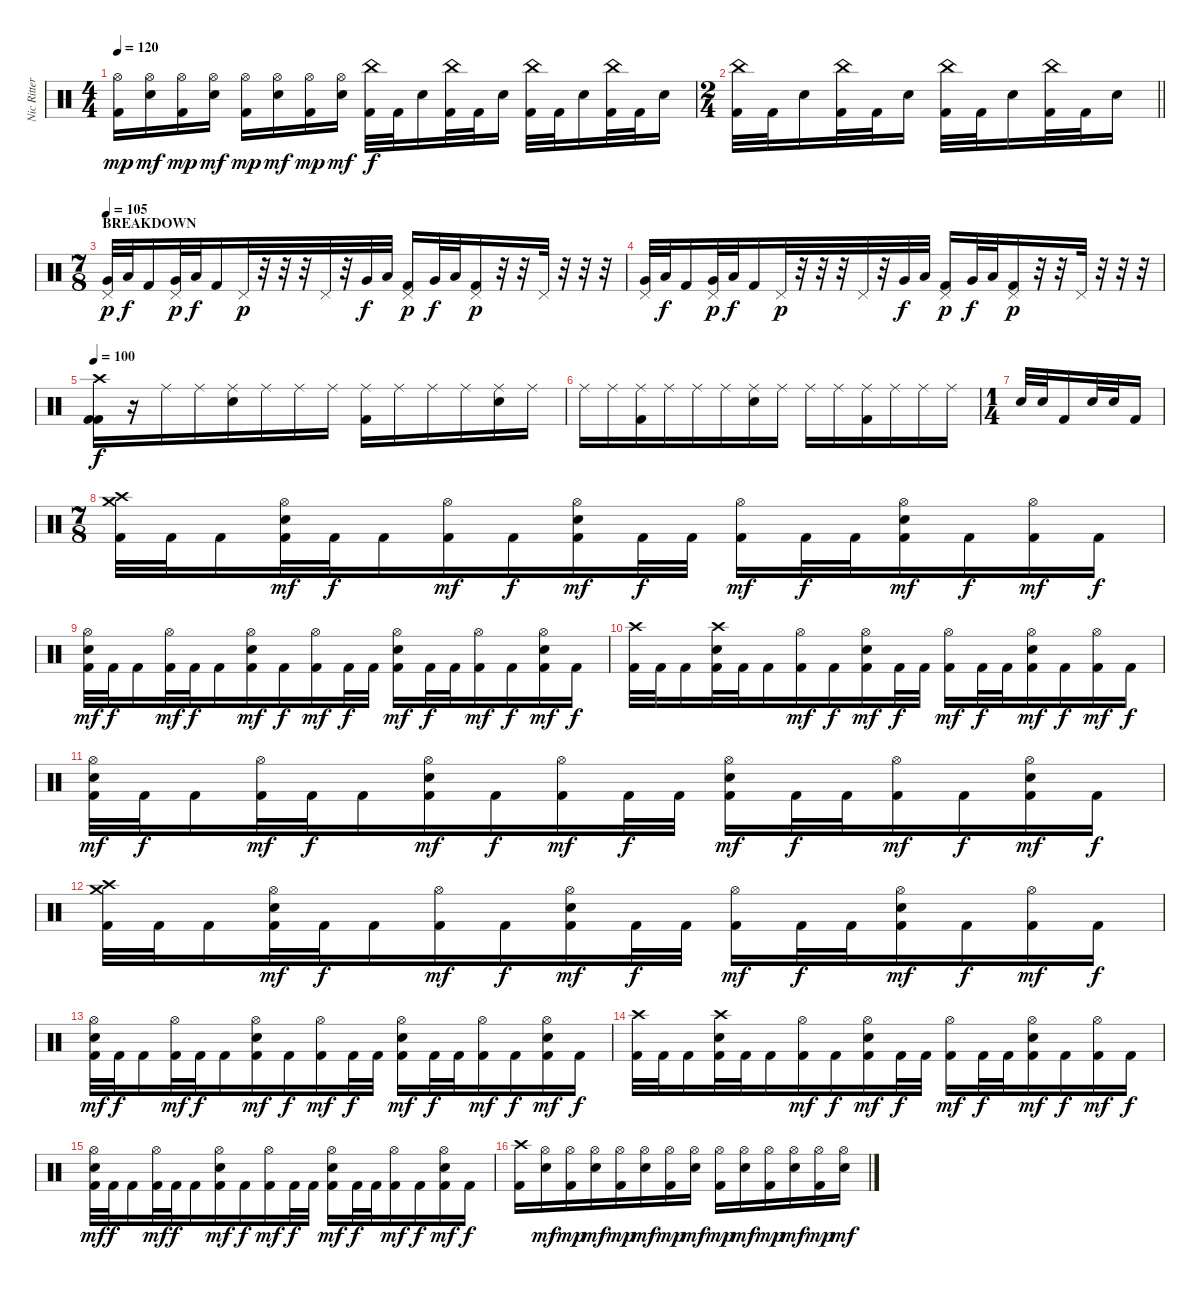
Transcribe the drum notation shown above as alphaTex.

\track ("Nic Ritter" "Nic Ritter") {instrument percussion}
\staff {score}
\articulation defaults
\ts (4 4)
\tempo 120
\clef neutral
\ks c
("Hi-Hat (open)" "Kick (hit) 2").16{dy mp} ("Hi-Hat (open)" "Electric Snare (hit)").16{dy mf} ("Hi-Hat (open)" "Kick (hit) 2").16{dy mp} ("Hi-Hat (open)" "Electric Snare (hit)").16{dy mf} ("Hi-Hat (open)" "Kick (hit) 2").16{dy mp} ("Hi-Hat (open)" "Electric Snare (hit)").16{dy mf} ("Hi-Hat (open)" "Kick (hit) 2").16{dy mp} ("Hi-Hat (open)" "Electric Snare (hit)").16{dy mf} ("China (hit)" "Kick (hit) 2").32{dy f} "Kick (hit) 2".32 "Electric Snare (hit)".16 ("China (hit)" "Kick (hit) 2").32 "Kick (hit) 2".32 "Electric Snare (hit)".16 ("China (hit)" "Kick (hit) 2").32 "Kick (hit) 2".32 "Electric Snare (hit)".16 ("China (hit)" "Kick (hit) 2").32 "Kick (hit) 2".32 "Electric Snare (hit)".16 |
\ts (2 4)
\barLineRight lightlight
("China (hit)" "Kick (hit) 2").32 "Kick (hit) 2".32 "Electric Snare (hit)".16 ("China (hit)" "Kick (hit) 2").32 "Kick (hit) 2".32 "Electric Snare (hit)".16 ("China (hit)" "Kick (hit) 2").32 "Kick (hit) 2".32 "Electric Snare (hit)".16 ("China (hit)" "Kick (hit) 2").32 "Kick (hit) 2".32 "Electric Snare (hit)".16 |
\ts (7 8)
\section ("" "BREAKDOWN")
\tempo 105
("Pedal Hi-Hat (hit)" "Very Low Tom (hit)").32{dy p} "Low Tom (hit)".32{dy f} "Kick (hit) 2".16 ("Pedal Hi-Hat (hit)" "Very Low Tom (hit)").32{dy p} "Low Tom (hit)".32{dy f} "Kick (hit) 2".16 "Pedal Hi-Hat (hit)".32{dy p} r.32 r.32 r.32 "Pedal Hi-Hat (hit)".32 r.32 "Very Low Tom (hit)".32{dy f} "Low Tom (hit)".32 ("Pedal Hi-Hat (hit)" "Kick (hit) 2").16{dy p} "Very Low Tom (hit)".32{dy f} "Low Tom (hit)".32 ("Pedal Hi-Hat (hit)" "Kick (hit) 2").16{dy p} r.32 r.32 "Pedal Hi-Hat (hit)".32 r.32 r.32 r.32 |
("Pedal Hi-Hat (hit)" "Very Low Tom (hit)").32 "Low Tom (hit)".32{dy f} "Kick (hit) 2".16 ("Pedal Hi-Hat (hit)" "Very Low Tom (hit)").32{dy p} "Low Tom (hit)".32{dy f} "Kick (hit) 2".16 "Pedal Hi-Hat (hit)".32{dy p} r.32 r.32 r.32 "Pedal Hi-Hat (hit)".32 r.32 "Very Low Tom (hit)".32{dy f} "Low Tom (hit)".32 ("Pedal Hi-Hat (hit)" "Kick (hit) 2").16{dy p} "Very Low Tom (hit)".32{dy f} "Low Tom (hit)".32 ("Pedal Hi-Hat (hit)" "Kick (hit) 2").16{dy p} r.32 r.32 "Pedal Hi-Hat (hit)".32 r.32 r.32 r.32 |
\tempo 100
("Crash high (hit)" "Kick (hit) 2" "Kick (hit) 2").16{dy f} r.16 "Ride (middle)".16 "Ride (middle)".16 ("Ride (middle)" "Electric Snare (hit)").16 "Ride (middle)".16 "Ride (middle)".16 "Ride (middle)".16 ("Ride (middle)" "Kick (hit) 2").16 "Ride (middle)".16 "Ride (middle)".16 "Ride (middle)".16 ("Ride (middle)" "Electric Snare (hit)").16 "Ride (middle)".16 |
"Ride (middle)".16 "Ride (middle)".16 ("Ride (middle)" "Kick (hit) 2").16 "Ride (middle)".16 "Ride (middle)".16 "Ride (middle)".16 ("Ride (middle)" "Electric Snare (hit)").16 "Ride (middle)".16 "Ride (middle)".16 "Ride (middle)".16 ("Ride (middle)" "Kick (hit) 2").16 "Ride (middle)".16 "Ride (middle)".16 "Ride (middle)".16 |
\ts (1 4)
"Electric Snare (hit)".32 "Electric Snare (hit)".32 "Kick (hit) 2".16 "Electric Snare (hit)".32 "Electric Snare (hit)".32 "Kick (hit) 2".16 |
\ts (7 8)
("Crash medium (hit)" "Crash high (hit)" "Kick (hit) 2").32 "Kick (hit) 2".32 "Kick (hit) 2".16 ("Hi-Hat (open)" "Electric Snare (hit)" "Kick (hit) 2").32{dy mf} "Kick (hit) 2".32{dy f} "Kick (hit) 2".16 ("Hi-Hat (open)" "Kick (hit) 2").16{dy mf} "Kick (hit) 2".16{dy f} ("Hi-Hat (open)" "Electric Snare (hit)" "Kick (hit) 2").16{dy mf} "Kick (hit) 2".32{dy f} "Kick (hit) 2".32 ("Hi-Hat (open)" "Kick (hit) 2").16{dy mf} "Kick (hit) 2".32{dy f} "Kick (hit) 2".32 ("Hi-Hat (open)" "Electric Snare (hit)" "Kick (hit) 2").16{dy mf} "Kick (hit) 2".16{dy f} ("Hi-Hat (open)" "Kick (hit) 2").16{dy mf} "Kick (hit) 2".16{dy f} |
("Hi-Hat (open)" "Electric Snare (hit)" "Kick (hit) 2").32{dy mf} "Kick (hit) 2".32{dy f} "Kick (hit) 2".16 ("Hi-Hat (open)" "Kick (hit) 2").32{dy mf} "Kick (hit) 2".32{dy f} "Kick (hit) 2".16 ("Hi-Hat (open)" "Electric Snare (hit)" "Kick (hit) 2").16{dy mf} "Kick (hit) 2".16{dy f} ("Hi-Hat (open)" "Kick (hit) 2").16{dy mf} "Kick (hit) 2".32{dy f} "Kick (hit) 2".32 ("Hi-Hat (open)" "Electric Snare (hit)" "Kick (hit) 2").16{dy mf} "Kick (hit) 2".32{dy f} "Kick (hit) 2".32 ("Hi-Hat (open)" "Kick (hit) 2").16{dy mf} "Kick (hit) 2".16{dy f} ("Hi-Hat (open)" "Electric Snare (hit)" "Kick (hit) 2").16{dy mf} "Kick (hit) 2".16{dy f} |
("Crash high (hit)" "Kick (hit) 2").32 "Kick (hit) 2".32 "Kick (hit) 2".16 ("Crash high (hit)" "Electric Snare (hit)" "Kick (hit) 2").32 "Kick (hit) 2".32 "Kick (hit) 2".16 ("Hi-Hat (open)" "Kick (hit) 2").16{dy mf} "Kick (hit) 2".16{dy f} ("Hi-Hat (open)" "Electric Snare (hit)" "Kick (hit) 2").16{dy mf} "Kick (hit) 2".32{dy f} "Kick (hit) 2".32 ("Hi-Hat (open)" "Kick (hit) 2").16{dy mf} "Kick (hit) 2".32{dy f} "Kick (hit) 2".32 ("Hi-Hat (open)" "Electric Snare (hit)" "Kick (hit) 2").16{dy mf} "Kick (hit) 2".16{dy f} ("Hi-Hat (open)" "Kick (hit) 2").16{dy mf} "Kick (hit) 2".16{dy f} |
("Hi-Hat (open)" "Electric Snare (hit)" "Kick (hit) 2").32{dy mf} "Kick (hit) 2".32{dy f} "Kick (hit) 2".16 ("Hi-Hat (open)" "Kick (hit) 2").32{dy mf} "Kick (hit) 2".32{dy f} "Kick (hit) 2".16 ("Hi-Hat (open)" "Electric Snare (hit)" "Kick (hit) 2").16{dy mf} "Kick (hit) 2".16{dy f} ("Hi-Hat (open)" "Kick (hit) 2").16{dy mf} "Kick (hit) 2".32{dy f} "Kick (hit) 2".32 ("Hi-Hat (open)" "Electric Snare (hit)" "Kick (hit) 2").16{dy mf} "Kick (hit) 2".32{dy f} "Kick (hit) 2".32 ("Hi-Hat (open)" "Kick (hit) 2").16{dy mf} "Kick (hit) 2".16{dy f} ("Hi-Hat (open)" "Electric Snare (hit)" "Kick (hit) 2").16{dy mf} "Kick (hit) 2".16{dy f} |
("Crash medium (hit)" "Crash high (hit)" "Kick (hit) 2").32 "Kick (hit) 2".32 "Kick (hit) 2".16 ("Hi-Hat (open)" "Electric Snare (hit)" "Kick (hit) 2").32{dy mf} "Kick (hit) 2".32{dy f} "Kick (hit) 2".16 ("Hi-Hat (open)" "Kick (hit) 2").16{dy mf} "Kick (hit) 2".16{dy f} ("Hi-Hat (open)" "Electric Snare (hit)" "Kick (hit) 2").16{dy mf} "Kick (hit) 2".32{dy f} "Kick (hit) 2".32 ("Hi-Hat (open)" "Kick (hit) 2").16{dy mf} "Kick (hit) 2".32{dy f} "Kick (hit) 2".32 ("Hi-Hat (open)" "Electric Snare (hit)" "Kick (hit) 2").16{dy mf} "Kick (hit) 2".16{dy f} ("Hi-Hat (open)" "Kick (hit) 2").16{dy mf} "Kick (hit) 2".16{dy f} |
("Hi-Hat (open)" "Electric Snare (hit)" "Kick (hit) 2").32{dy mf} "Kick (hit) 2".32{dy f} "Kick (hit) 2".16 ("Hi-Hat (open)" "Kick (hit) 2").32{dy mf} "Kick (hit) 2".32{dy f} "Kick (hit) 2".16 ("Hi-Hat (open)" "Electric Snare (hit)" "Kick (hit) 2").16{dy mf} "Kick (hit) 2".16{dy f} ("Hi-Hat (open)" "Kick (hit) 2").16{dy mf} "Kick (hit) 2".32{dy f} "Kick (hit) 2".32 ("Hi-Hat (open)" "Electric Snare (hit)" "Kick (hit) 2").16{dy mf} "Kick (hit) 2".32{dy f} "Kick (hit) 2".32 ("Hi-Hat (open)" "Kick (hit) 2").16{dy mf} "Kick (hit) 2".16{dy f} ("Hi-Hat (open)" "Electric Snare (hit)" "Kick (hit) 2").16{dy mf} "Kick (hit) 2".16{dy f} |
("Crash high (hit)" "Kick (hit) 2").32 "Kick (hit) 2".32 "Kick (hit) 2".16 ("Crash high (hit)" "Electric Snare (hit)" "Kick (hit) 2").32 "Kick (hit) 2".32 "Kick (hit) 2".16 ("Hi-Hat (open)" "Kick (hit) 2").16{dy mf} "Kick (hit) 2".16{dy f} ("Hi-Hat (open)" "Electric Snare (hit)" "Kick (hit) 2").16{dy mf} "Kick (hit) 2".32{dy f} "Kick (hit) 2".32 ("Hi-Hat (open)" "Kick (hit) 2").16{dy mf} "Kick (hit) 2".32{dy f} "Kick (hit) 2".32 ("Hi-Hat (open)" "Electric Snare (hit)" "Kick (hit) 2").16{dy mf} "Kick (hit) 2".16{dy f} ("Hi-Hat (open)" "Kick (hit) 2").16{dy mf} "Kick (hit) 2".16{dy f} |
("Hi-Hat (open)" "Electric Snare (hit)" "Kick (hit) 2").32{dy mf} "Kick (hit) 2".32{dy f} "Kick (hit) 2".16 ("Hi-Hat (open)" "Kick (hit) 2").32{dy mf} "Kick (hit) 2".32{dy f} "Kick (hit) 2".16 ("Hi-Hat (open)" "Electric Snare (hit)" "Kick (hit) 2").16{dy mf} "Kick (hit) 2".16{dy f} ("Hi-Hat (open)" "Kick (hit) 2").16{dy mf} "Kick (hit) 2".32{dy f} "Kick (hit) 2".32 ("Hi-Hat (open)" "Electric Snare (hit)" "Kick (hit) 2").16{dy mf} "Kick (hit) 2".32{dy f} "Kick (hit) 2".32 ("Hi-Hat (open)" "Kick (hit) 2").16{dy mf} "Kick (hit) 2".16{dy f} ("Hi-Hat (open)" "Electric Snare (hit)" "Kick (hit) 2").16{dy mf} "Kick (hit) 2".16{dy f} |
("Crash high (hit)" "Kick (hit) 2").16 ("Hi-Hat (open)" "Electric Snare (hit)").16{dy mf} ("Hi-Hat (open)" "Kick (hit) 2").16{dy mp} ("Hi-Hat (open)" "Electric Snare (hit)").16{dy mf} ("Hi-Hat (open)" "Kick (hit) 2").16{dy mp} ("Hi-Hat (open)" "Electric Snare (hit)").16{dy mf} ("Hi-Hat (open)" "Kick (hit) 2").16{dy mp} ("Hi-Hat (open)" "Electric Snare (hit)").16{dy mf} ("Hi-Hat (open)" "Kick (hit) 2").16{dy mp} ("Hi-Hat (open)" "Electric Snare (hit)").16{dy mf} ("Hi-Hat (open)" "Kick (hit) 2").16{dy mp} ("Hi-Hat (open)" "Electric Snare (hit)").16{dy mf} ("Hi-Hat (open)" "Kick (hit) 2").16{dy mp} ("Hi-Hat (open)" "Electric Snare (hit)").16{dy mf}
